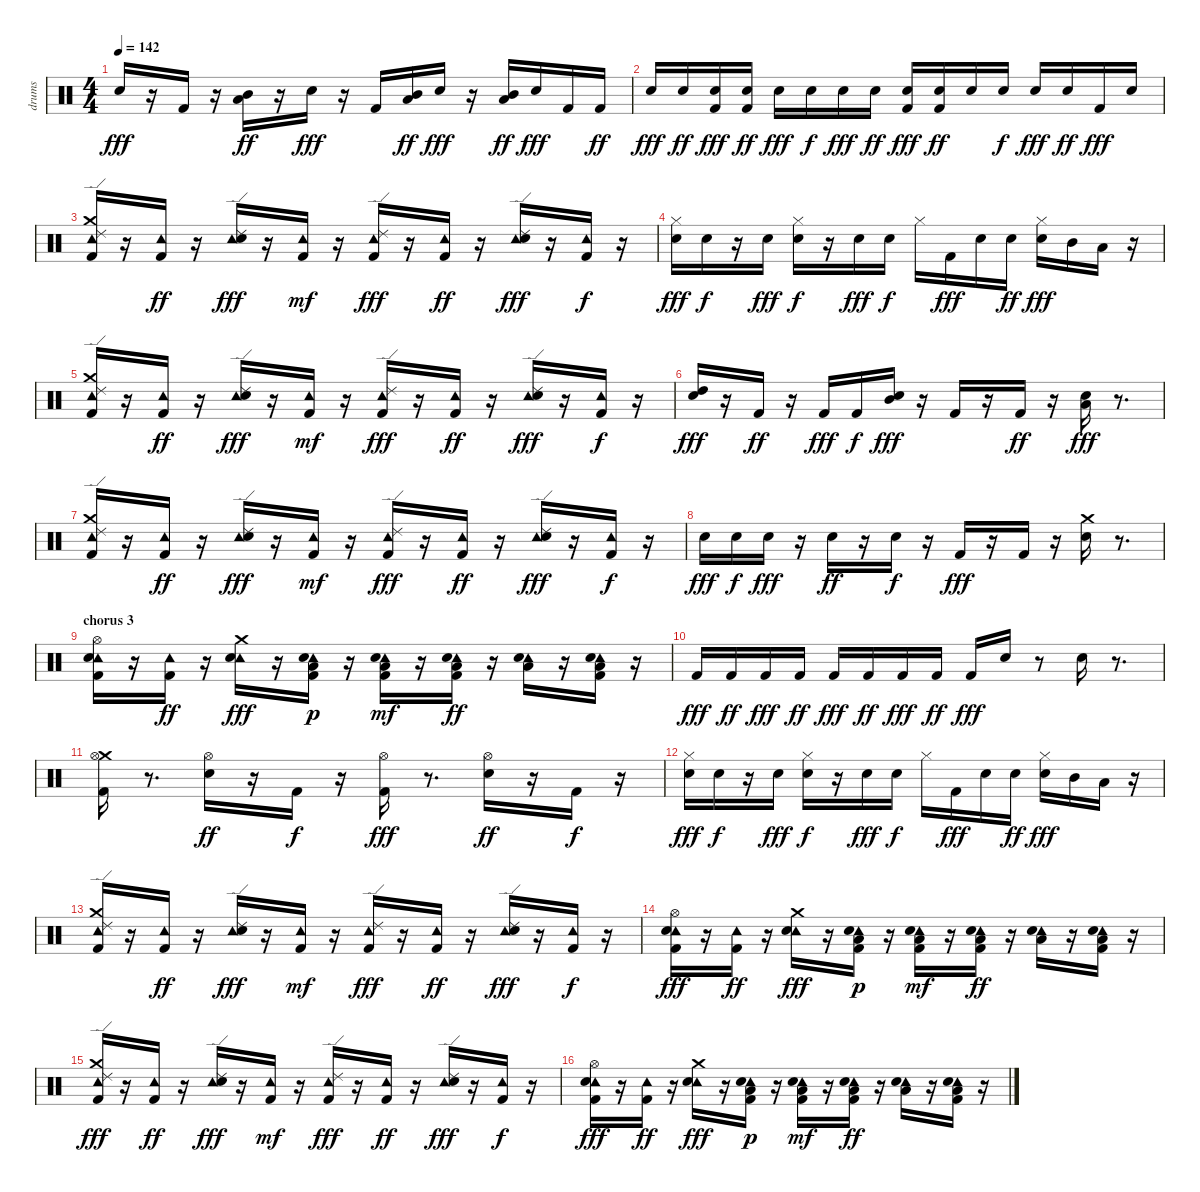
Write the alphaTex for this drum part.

\track ("drums" "drums") {instrument percussion}
\staff {score}
\articulation defaults
\ts (4 4)
\tempo 142
\clef neutral
\ks c "Snare (hit) 2".16{dy fff}
r.16 "Kick (hit) 2".16 r.16 ("Mid Tom (hit)" "Low Floor Tom (hit)").16{dy ff} r.16 "Snare (hit) 2".16{dy fff} r.16 "Kick (hit) 2".16 ("Mid Tom (hit)" "Low Floor Tom (hit)").16{dy ff} "Snare (hit) 2".16{dy fff} r.16 ("Mid Tom (hit)" "Low Floor Tom (hit)").16{dy ff} "Snare (hit) 2".16{dy fff} "Kick (hit) 2".16 "Kick (hit) 2".16{dy ff} |
"Snare (hit) 2".16{dy fff} "Snare (hit) 2".16{dy ff} ("Snare (hit) 2" "Kick (hit) 2").16{dy fff} ("Snare (hit) 2" "Kick (hit) 2").16{dy ff} "Snare (hit) 2".16{dy fff} "Snare (hit) 2".16{dy f} "Snare (hit) 2".16{dy fff} "Snare (hit) 2".16{dy ff} ("Snare (hit) 2" "Kick (hit) 2").16{dy fff} ("Snare (hit) 2" "Kick (hit) 2").16{dy ff} "Snare (hit) 2".16 "Snare (hit) 2".16{dy f} "Snare (hit) 2".16{dy fff} "Snare (hit) 2".16{dy ff} "Kick (hit) 2".16{dy fff} "Snare (hit) 2".16 |
("Tambourine (hit)" "Crash medium (hit)" "Ride (edge) 2" "Kick (hit) 2").16 r.16 ("Tambourine (hit)" "Kick (hit) 2").16{dy ff} r.16 ("Tambourine (hit)" "Ride (edge) 2" "Snare (hit) 2").16{dy fff} r.16 ("Tambourine (hit)" "Kick (hit) 2").16{dy mf} r.16 ("Tambourine (hit)" "Ride (edge) 2" "Kick (hit) 2").16{dy fff} r.16 ("Tambourine (hit)" "Kick (hit) 2").16{dy ff} r.16 ("Tambourine (hit)" "Ride (edge) 2" "Snare (hit) 2").16{dy fff} r.16 ("Tambourine (hit)" "Kick (hit) 2").16{dy f} r.16 |
("Hi-Hat (closed)" "Snare (hit) 2").16{dy fff} "Snare (hit) 2".16{dy f} r.16 "Snare (hit) 2".16{dy fff} ("Hi-Hat (closed)" "Snare (hit) 2").16{dy f} r.16 "Snare (hit) 2".16{dy fff} "Snare (hit) 2".16{dy f} "Hi-Hat (closed)".16 "Kick (hit) 2".16{dy fff} "Snare (hit) 2".16 "Snare (hit) 2".16{dy ff} ("Hi-Hat (closed)" "Snare (hit) 2").16{dy fff} "Mid Tom (hit)".16 "Low Floor Tom (hit)".16 r.16 |
("Tambourine (hit)" "Crash medium (hit)" "Ride (edge) 2" "Kick (hit) 2").16 r.16 ("Tambourine (hit)" "Kick (hit) 2").16{dy ff} r.16 ("Tambourine (hit)" "Ride (edge) 2" "Snare (hit) 2").16{dy fff} r.16 ("Tambourine (hit)" "Kick (hit) 2").16{dy mf} r.16 ("Tambourine (hit)" "Ride (edge) 2" "Kick (hit) 2").16{dy fff} r.16 ("Tambourine (hit)" "Kick (hit) 2").16{dy ff} r.16 ("Tambourine (hit)" "Ride (edge) 2" "Snare (hit) 2").16{dy fff} r.16 ("Tambourine (hit)" "Kick (hit) 2").16{dy f} r.16 |
("High Tom (hit)" "Snare (hit) 2").16{dy fff} r.16 "Kick (hit) 2".16{dy ff} r.16 "Kick (hit) 2".16{dy fff} "Kick (hit) 2".16{dy f} ("Mid Tom (hit)" "Snare (hit) 2").16{dy fff} r.16 "Kick (hit) 2".16 r.16 "Kick (hit) 2".16{dy ff} r.16 ("Low Floor Tom (hit)" "Snare (hit) 2").16{dy fff} r.8{d} |
("Tambourine (hit)" "Crash medium (hit)" "Ride (edge) 2" "Kick (hit) 2").16 r.16 ("Tambourine (hit)" "Kick (hit) 2").16{dy ff} r.16 ("Tambourine (hit)" "Ride (edge) 2" "Snare (hit) 2").16{dy fff} r.16 ("Tambourine (hit)" "Kick (hit) 2").16{dy mf} r.16 ("Tambourine (hit)" "Ride (edge) 2" "Kick (hit) 2").16{dy fff} r.16 ("Tambourine (hit)" "Kick (hit) 2").16{dy ff} r.16 ("Tambourine (hit)" "Ride (edge) 2" "Snare (hit) 2").16{dy fff} r.16 ("Tambourine (hit)" "Kick (hit) 2").16{dy f} r.16 |
"Snare (hit) 2".16{dy fff} "Snare (hit) 2".16{dy f} "Snare (hit) 2".16{dy fff} r.16 "Snare (hit) 2".16{dy ff} r.16 "Snare (hit) 2".16{dy f} r.16 "Kick (hit) 2".16{dy fff} r.16 "Kick (hit) 2".16 r.16 ("Crash medium (hit)" "Snare (hit) 2").16 r.8{d} |
\section ("" "chorus 3")
("Tambourine (hit)" "Hi-Hat (open)" "Snare (hit) 2" "Kick (hit) 2").16 r.16 ("Tambourine (hit)" "Kick (hit) 2").16{dy ff} r.16 ("Tambourine (hit)" "Crash medium (hit)" "Snare (hit) 2").16{dy fff} r.16 ("Tambourine (hit)" "Low Floor Tom (hit)" "Snare (hit) 2" "Kick (hit) 2").16{dy p} r.16 ("Tambourine (hit)" "Low Floor Tom (hit)" "Snare (hit) 2" "Kick (hit) 2").16{dy mf} r.16 ("Tambourine (hit)" "Low Floor Tom (hit)" "Snare (hit) 2" "Kick (hit) 2").16{dy ff} r.16 ("Tambourine (hit)" "Low Floor Tom (hit)" "Snare (hit) 2").16 r.16 ("Tambourine (hit)" "Low Floor Tom (hit)" "Snare (hit) 2" "Kick (hit) 2").16 r.16 |
"Kick (hit) 2".16{dy fff} "Kick (hit) 2".16{dy ff} "Kick (hit) 2".16{dy fff} "Kick (hit) 2".16{dy ff} "Kick (hit) 2".16{dy fff} "Kick (hit) 2".16{dy ff} "Kick (hit) 2".16{dy fff} "Kick (hit) 2".16{dy ff} "Kick (hit) 2".16{dy fff} "Snare (hit) 2".16 r.8 "Snare (hit) 2".16 r.8{d} |
("Crash medium (hit)" "Hi-Hat (open)" "Kick (hit) 2").16 r.8{d} ("Hi-Hat (open)" "Snare (hit) 2").16{dy ff} r.16 "Kick (hit) 2".16{dy f} r.16 ("Hi-Hat (open)" "Kick (hit) 2").16{dy fff} r.8{d} ("Hi-Hat (open)" "Snare (hit) 2").16{dy ff} r.16 "Kick (hit) 2".16{dy f} r.16 |
("Hi-Hat (closed)" "Snare (hit) 2").16{dy fff} "Snare (hit) 2".16{dy f} r.16 "Snare (hit) 2".16{dy fff} ("Hi-Hat (closed)" "Snare (hit) 2").16{dy f} r.16 "Snare (hit) 2".16{dy fff} "Snare (hit) 2".16{dy f} "Hi-Hat (closed)".16 "Kick (hit) 2".16{dy fff} "Snare (hit) 2".16 "Snare (hit) 2".16{dy ff} ("Hi-Hat (closed)" "Snare (hit) 2").16{dy fff} "Mid Tom (hit)".16 "Low Floor Tom (hit)".16 r.16 |
("Tambourine (hit)" "Crash medium (hit)" "Ride (edge) 2" "Kick (hit) 2").16 r.16 ("Tambourine (hit)" "Kick (hit) 2").16{dy ff} r.16 ("Tambourine (hit)" "Ride (edge) 2" "Snare (hit) 2").16{dy fff} r.16 ("Tambourine (hit)" "Kick (hit) 2").16{dy mf} r.16 ("Tambourine (hit)" "Ride (edge) 2" "Kick (hit) 2").16{dy fff} r.16 ("Tambourine (hit)" "Kick (hit) 2").16{dy ff} r.16 ("Tambourine (hit)" "Ride (edge) 2" "Snare (hit) 2").16{dy fff} r.16 ("Tambourine (hit)" "Kick (hit) 2").16{dy f} r.16 |
("Tambourine (hit)" "Hi-Hat (open)" "Snare (hit) 2" "Kick (hit) 2").16{dy fff} r.16 ("Tambourine (hit)" "Kick (hit) 2").16{dy ff} r.16 ("Tambourine (hit)" "Crash medium (hit)" "Snare (hit) 2").16{dy fff} r.16 ("Tambourine (hit)" "Low Floor Tom (hit)" "Snare (hit) 2" "Kick (hit) 2").16{dy p} r.16 ("Tambourine (hit)" "Low Floor Tom (hit)" "Snare (hit) 2" "Kick (hit) 2").16{dy mf} r.16 ("Tambourine (hit)" "Low Floor Tom (hit)" "Snare (hit) 2" "Kick (hit) 2").16{dy ff} r.16 ("Tambourine (hit)" "Low Floor Tom (hit)" "Snare (hit) 2").16 r.16 ("Tambourine (hit)" "Low Floor Tom (hit)" "Snare (hit) 2" "Kick (hit) 2").16 r.16 |
("Tambourine (hit)" "Crash medium (hit)" "Ride (edge) 2" "Kick (hit) 2").16{dy fff} r.16 ("Tambourine (hit)" "Kick (hit) 2").16{dy ff} r.16 ("Tambourine (hit)" "Ride (edge) 2" "Snare (hit) 2").16{dy fff} r.16 ("Tambourine (hit)" "Kick (hit) 2").16{dy mf} r.16 ("Tambourine (hit)" "Ride (edge) 2" "Kick (hit) 2").16{dy fff} r.16 ("Tambourine (hit)" "Kick (hit) 2").16{dy ff} r.16 ("Tambourine (hit)" "Ride (edge) 2" "Snare (hit) 2").16{dy fff} r.16 ("Tambourine (hit)" "Kick (hit) 2").16{dy f} r.16 |
("Tambourine (hit)" "Hi-Hat (open)" "Snare (hit) 2" "Kick (hit) 2").16{dy fff} r.16 ("Tambourine (hit)" "Kick (hit) 2").16{dy ff} r.16 ("Tambourine (hit)" "Crash medium (hit)" "Snare (hit) 2").16{dy fff} r.16 ("Tambourine (hit)" "Low Floor Tom (hit)" "Snare (hit) 2" "Kick (hit) 2").16{dy p} r.16 ("Tambourine (hit)" "Low Floor Tom (hit)" "Snare (hit) 2" "Kick (hit) 2").16{dy mf} r.16 ("Tambourine (hit)" "Low Floor Tom (hit)" "Snare (hit) 2" "Kick (hit) 2").16{dy ff} r.16 ("Tambourine (hit)" "Low Floor Tom (hit)" "Snare (hit) 2").16 r.16 ("Tambourine (hit)" "Low Floor Tom (hit)" "Snare (hit) 2" "Kick (hit) 2").16 r.16
